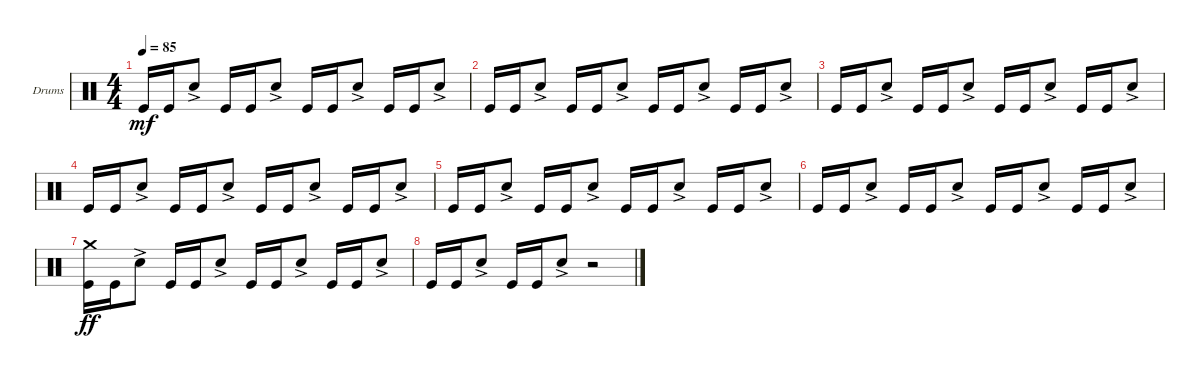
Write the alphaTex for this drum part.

\defaultSystemsLayout 4
\bracketExtendMode groupsimilarinstruments
\firstSystemTrackNameOrientation horizontal
\otherSystemsTrackNameOrientation horizontal
\track ("Drumkit" "Drums") {instrument percussion}
\staff {score}
\articulation defaults
\ts (4 4)
\tempo 85
\clef neutral
\ks c "Kick (hit)".16{dy mf} "Kick (hit)".16 "Snare (hit) 2"{ac}.8 "Kick (hit)".16 "Kick (hit)".16 "Snare (hit) 2"{ac}.8 "Kick (hit)".16 "Kick (hit)".16 "Snare (hit) 2"{ac}.8 "Kick (hit)".16 "Kick (hit)".16 "Snare (hit) 2"{ac}.8
|
"Kick (hit)".16 "Kick (hit)".16 "Snare (hit) 2"{ac}.8 "Kick (hit)".16 "Kick (hit)".16 "Snare (hit) 2"{ac}.8 "Kick (hit)".16 "Kick (hit)".16 "Snare (hit) 2"{ac}.8 "Kick (hit)".16 "Kick (hit)".16 "Snare (hit) 2"{ac}.8 |
"Kick (hit)".16 "Kick (hit)".16 "Snare (hit) 2"{ac}.8 "Kick (hit)".16 "Kick (hit)".16 "Snare (hit) 2"{ac}.8 "Kick (hit)".16 "Kick (hit)".16 "Snare (hit) 2"{ac}.8 "Kick (hit)".16 "Kick (hit)".16 "Snare (hit) 2"{ac}.8 |
"Kick (hit)".16 "Kick (hit)".16 "Snare (hit) 2"{ac}.8 "Kick (hit)".16 "Kick (hit)".16 "Snare (hit) 2"{ac}.8 "Kick (hit)".16 "Kick (hit)".16 "Snare (hit) 2"{ac}.8 "Kick (hit)".16 "Kick (hit)".16 "Snare (hit) 2"{ac}.8 |
"Kick (hit)".16 "Kick (hit)".16 "Snare (hit) 2"{ac}.8 "Kick (hit)".16 "Kick (hit)".16 "Snare (hit) 2"{ac}.8 "Kick (hit)".16 "Kick (hit)".16 "Snare (hit) 2"{ac}.8 "Kick (hit)".16 "Kick (hit)".16 "Snare (hit) 2"{ac}.8 |
"Kick (hit)".16 "Kick (hit)".16 "Snare (hit) 2"{ac}.8 "Kick (hit)".16 "Kick (hit)".16 "Snare (hit) 2"{ac}.8 "Kick (hit)".16 "Kick (hit)".16 "Snare (hit) 2"{ac}.8 "Kick (hit)".16 "Kick (hit)".16 "Snare (hit) 2"{ac}.8 |
("Kick (hit)" "Crash medium (hit)").16{dy ff} "Kick (hit)".16 "Snare (hit) 2"{ac}.8 "Kick (hit)".16 "Kick (hit)".16 "Snare (hit) 2"{ac}.8 "Kick (hit)".16 "Kick (hit)".16 "Snare (hit) 2"{ac}.8 "Kick (hit)".16 "Kick (hit)".16 "Snare (hit) 2"{ac}.8 |
"Kick (hit)".16 "Kick (hit)".16 "Snare (hit) 2"{ac}.8 "Kick (hit)".16 "Kick (hit)".16 "Snare (hit) 2"{ac}.8 r.2
